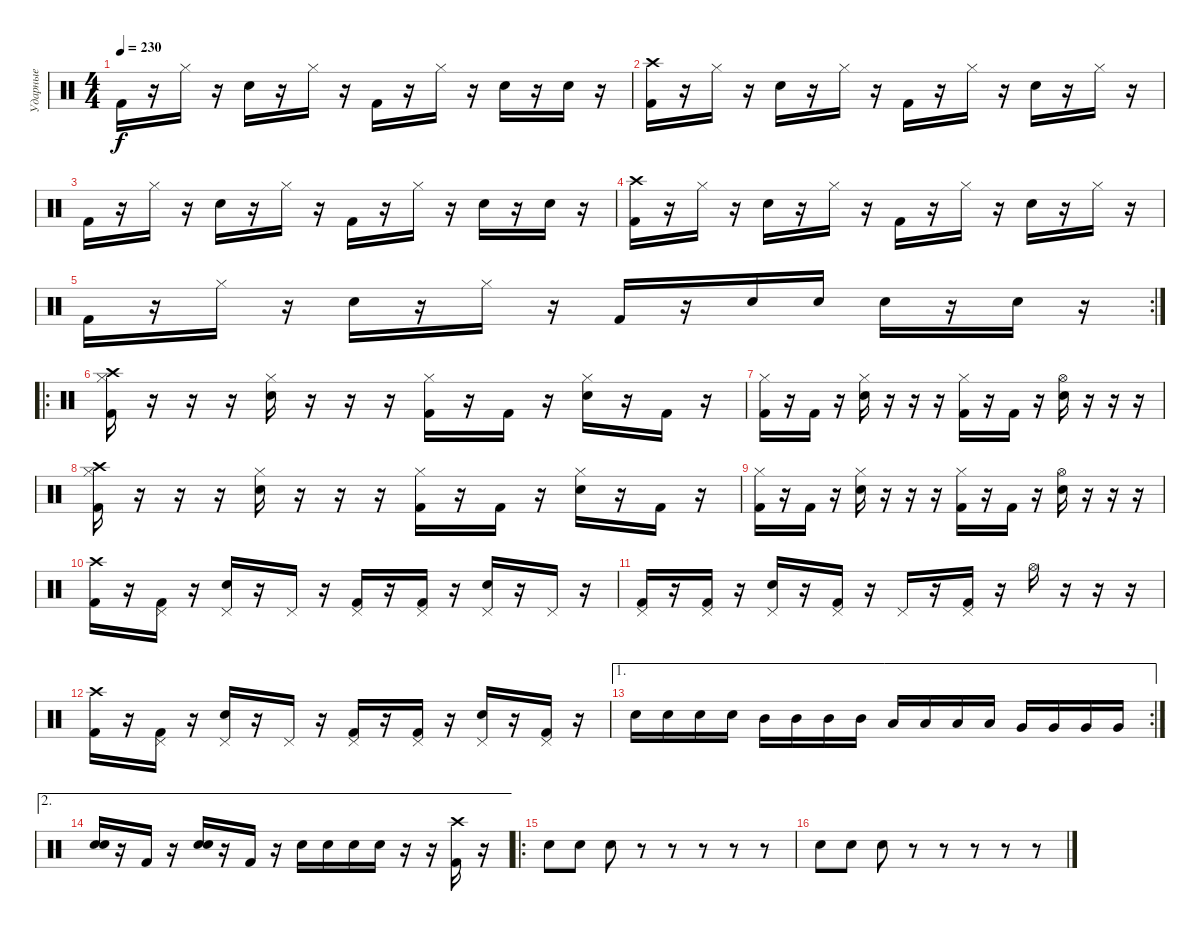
\track ("Ударные" "Ударные") {instrument percussion}
\staff
\articulation defaults
\ts (4 4)
\tempo 230
\clef neutral
\ks c "Kick (hit) 2".16{dy f}
r.16 "Hi-Hat (closed)".16 r.16 "Electric Snare (hit)".16 r.16 "Hi-Hat (closed)".16 r.16 "Kick (hit) 2".16 r.16 "Hi-Hat (closed)".16 r.16 "Electric Snare (hit)".16 r.16 "Electric Snare (hit)".16 r.16 |
("Crash high (hit)" "Kick (hit) 2").16 r.16 "Hi-Hat (closed)".16 r.16 "Electric Snare (hit)".16 r.16 "Hi-Hat (closed)".16 r.16 "Kick (hit) 2".16 r.16 "Hi-Hat (closed)".16 r.16 "Electric Snare (hit)".16 r.16 "Hi-Hat (closed)".16 r.16 |
"Kick (hit) 2".16 r.16 "Hi-Hat (closed)".16 r.16 "Electric Snare (hit)".16 r.16 "Hi-Hat (closed)".16 r.16 "Kick (hit) 2".16 r.16 "Hi-Hat (closed)".16 r.16 "Electric Snare (hit)".16 r.16 "Electric Snare (hit)".16 r.16 |
("Crash high (hit)" "Kick (hit) 2").16 r.16 "Hi-Hat (closed)".16 r.16 "Electric Snare (hit)".16 r.16 "Hi-Hat (closed)".16 r.16 "Kick (hit) 2".16 r.16 "Hi-Hat (closed)".16 r.16 "Electric Snare (hit)".16 r.16 "Hi-Hat (closed)".16 r.16 |
\rc 2 "Kick (hit) 2".16
r.16 "Hi-Hat (closed)".16 r.16 "Electric Snare (hit)".16 r.16 "Hi-Hat (closed)".16 r.16 "Kick (hit) 2".16 r.16 "Electric Snare (hit)".16 "Electric Snare (hit)".16 "Electric Snare (hit)".16 r.16 "Electric Snare (hit)".16 r.16 |
\ro
("Hi-Hat (closed)" "Kick (hit) 2" "Crash high (hit)").16 r.16 r.16 r.16 ("Hi-Hat (closed)" "Electric Snare (hit)").16 r.16 r.16 r.16 ("Hi-Hat (closed)" "Kick (hit) 2").16 r.16 "Kick (hit) 2".16 r.16 ("Hi-Hat (closed)" "Electric Snare (hit)").16 r.16 "Kick (hit) 2".16 r.16 |
("Hi-Hat (closed)" "Kick (hit) 2").16 r.16 "Kick (hit) 2".16 r.16 ("Hi-Hat (closed)" "Electric Snare (hit)").16 r.16 r.16 r.16 ("Hi-Hat (closed)" "Kick (hit) 2").16 r.16 "Kick (hit) 2".16 r.16 ("Hi-Hat (open)" "Electric Snare (hit)").16 r.16 r.16 r.16 |
("Hi-Hat (closed)" "Kick (hit) 2" "Crash high (hit)").16 r.16 r.16 r.16 ("Hi-Hat (closed)" "Electric Snare (hit)").16 r.16 r.16 r.16 ("Hi-Hat (closed)" "Kick (hit) 2").16 r.16 "Kick (hit) 2".16 r.16 ("Hi-Hat (closed)" "Electric Snare (hit)").16 r.16 "Kick (hit) 2".16 r.16 |
("Hi-Hat (closed)" "Kick (hit) 2").16 r.16 "Kick (hit) 2".16 r.16 ("Hi-Hat (closed)" "Electric Snare (hit)").16 r.16 r.16 r.16 ("Hi-Hat (closed)" "Kick (hit) 2").16 r.16 "Kick (hit) 2".16 r.16 ("Hi-Hat (open)" "Electric Snare (hit)").16 r.16 r.16 r.16 |
("Crash high (hit)" "Kick (hit) 2").16 r.16 ("Pedal Hi-Hat (hit)" "Kick (hit) 2").16 r.16 ("Pedal Hi-Hat (hit)" "Electric Snare (hit)").16 r.16 "Pedal Hi-Hat (hit)".16 r.16 ("Pedal Hi-Hat (hit)" "Kick (hit) 2").16 r.16 ("Pedal Hi-Hat (hit)" "Kick (hit) 2").16 r.16 ("Pedal Hi-Hat (hit)" "Electric Snare (hit)").16 r.16 "Pedal Hi-Hat (hit)".16 r.16 |
("Pedal Hi-Hat (hit)" "Kick (hit) 2").16 r.16 ("Pedal Hi-Hat (hit)" "Kick (hit) 2").16 r.16 ("Pedal Hi-Hat (hit)" "Electric Snare (hit)").16 r.16 ("Pedal Hi-Hat (hit)" "Kick (hit) 2").16 r.16 "Pedal Hi-Hat (hit)".16 r.16 ("Pedal Hi-Hat (hit)" "Kick (hit) 2").16 r.16 "Hi-Hat (open)".16 r.16 r.16 r.16 |
("Crash high (hit)" "Kick (hit) 2").16 r.16 ("Pedal Hi-Hat (hit)" "Kick (hit) 2").16 r.16 ("Pedal Hi-Hat (hit)" "Electric Snare (hit)").16 r.16 "Pedal Hi-Hat (hit)".16 r.16 ("Pedal Hi-Hat (hit)" "Kick (hit) 2").16 r.16 ("Pedal Hi-Hat (hit)" "Kick (hit) 2").16 r.16 ("Pedal Hi-Hat (hit)" "Electric Snare (hit)").16 r.16 ("Pedal Hi-Hat (hit)" "Kick (hit) 2").16 r.16 |
\ae 1
\rc 2 "Electric Snare (hit)".16 "Electric Snare (hit)".16 "Electric Snare (hit)".16 "Electric Snare (hit)".16 "Mid Tom (hit)".16 "Mid Tom (hit)".16 "Mid Tom (hit)".16 "Mid Tom (hit)".16 "Low Tom (hit)".16 "Low Tom (hit)".16 "Low Tom (hit)".16 "Low Tom (hit)".16 "Very Low Tom (hit)".16 "Very Low Tom (hit)".16 "Very Low Tom (hit)".16 "Very Low Tom (hit)".16
|
\ae 2
("Electric Snare (hit)" "Electric Snare (hit)").16 r.16 "Kick (hit) 2".16 r.16 ("Electric Snare (hit)" "Electric Snare (hit)").16 r.16 "Kick (hit) 2".16 r.16 "Electric Snare (hit)".16 "Electric Snare (hit)".16 "Electric Snare (hit)".16 "Electric Snare (hit)".16 r.16 r.16 ("Crash high (hit)" "Kick (hit) 2").16 r.16 |
\ro "Electric Snare (hit)".8 "Electric Snare (hit)".8 "Electric Snare (hit)".8
r.8 r.8 r.8 r.8 r.8 |
"Electric Snare (hit)".8 "Electric Snare (hit)".8 "Electric Snare (hit)".8 r.8 r.8 r.8 r.8 r.8
